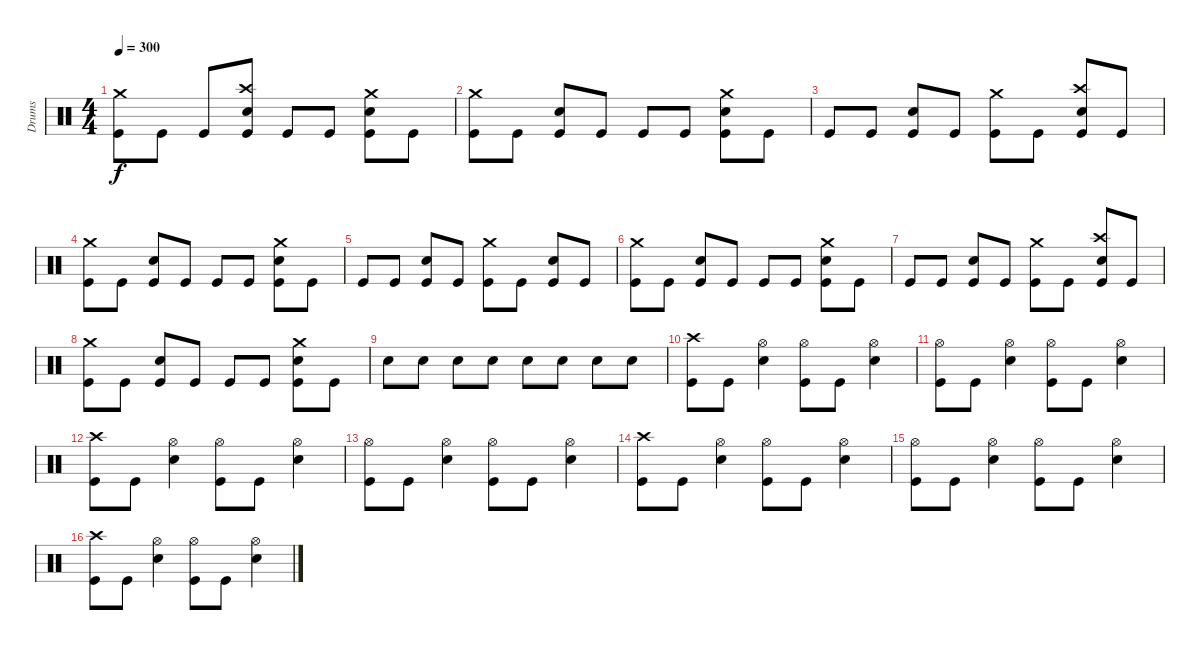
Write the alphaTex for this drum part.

\track ("Drums" "Drums") {instrument percussion}
\staff {score}
\articulation defaults
\ts (4 4)
\tempo 300
\clef neutral
\ks c
("Crash medium (hit)" "Kick (hit)").8{dy f} "Kick (hit)".8 "Kick (hit)".8 ("Crash high (hit)" "Electric Snare (hit)" "Kick (hit)").8 "Kick (hit)".8 "Kick (hit)".8 ("Crash medium (hit)" "Electric Snare (hit)" "Kick (hit)").8 "Kick (hit)".8 |
("Crash medium (hit)" "Kick (hit)").8 "Kick (hit)".8 ("Electric Snare (hit)" "Kick (hit)").8 "Kick (hit)".8 "Kick (hit)".8 "Kick (hit)".8 ("Crash medium (hit)" "Electric Snare (hit)" "Kick (hit)").8 "Kick (hit)".8 |
"Kick (hit)".8 "Kick (hit)".8 ("Electric Snare (hit)" "Kick (hit)").8 "Kick (hit)".8 ("Crash medium (hit)" "Kick (hit)").8 "Kick (hit)".8 ("Crash high (hit)" "Electric Snare (hit)" "Kick (hit)").8 "Kick (hit)".8 |
("Crash medium (hit)" "Kick (hit)").8 "Kick (hit)".8 ("Electric Snare (hit)" "Kick (hit)").8 "Kick (hit)".8 "Kick (hit)".8 "Kick (hit)".8 ("Crash medium (hit)" "Electric Snare (hit)" "Kick (hit)").8 "Kick (hit)".8 |
"Kick (hit)".8 "Kick (hit)".8 ("Electric Snare (hit)" "Kick (hit)").8 "Kick (hit)".8 ("Crash medium (hit)" "Kick (hit)").8 "Kick (hit)".8 ("Electric Snare (hit)" "Kick (hit)").8 "Kick (hit)".8 |
("Crash medium (hit)" "Kick (hit)").8 "Kick (hit)".8 ("Electric Snare (hit)" "Kick (hit)").8 "Kick (hit)".8 "Kick (hit)".8 "Kick (hit)".8 ("Crash medium (hit)" "Electric Snare (hit)" "Kick (hit)").8 "Kick (hit)".8 |
"Kick (hit)".8 "Kick (hit)".8 ("Electric Snare (hit)" "Kick (hit)").8 "Kick (hit)".8 ("Crash medium (hit)" "Kick (hit)").8 "Kick (hit)".8 ("Crash high (hit)" "Electric Snare (hit)" "Kick (hit)").8 "Kick (hit)".8 |
("Crash medium (hit)" "Kick (hit)").8 "Kick (hit)".8 ("Electric Snare (hit)" "Kick (hit)").8 "Kick (hit)".8 "Kick (hit)".8 "Kick (hit)".8 ("Crash medium (hit)" "Electric Snare (hit)" "Kick (hit)").8 "Kick (hit)".8 |
"Electric Snare (hit)".8 "Electric Snare (hit)".8 "Electric Snare (hit)".8 "Electric Snare (hit)".8 "Electric Snare (hit)".8 "Electric Snare (hit)".8 "Electric Snare (hit)".8 "Electric Snare (hit)".8 |
("Crash high (hit)" "Kick (hit)").8 "Kick (hit)".8 ("Hi-Hat (open)" "Electric Snare (hit)").4 ("Hi-Hat (open)" "Kick (hit)").8 "Kick (hit)".8 ("Hi-Hat (open)" "Electric Snare (hit)").4 |
("Hi-Hat (open)" "Kick (hit)").8 "Kick (hit)".8 ("Hi-Hat (open)" "Electric Snare (hit)").4 ("Hi-Hat (open)" "Kick (hit)").8 "Kick (hit)".8 ("Hi-Hat (open)" "Electric Snare (hit)").4 |
("Crash high (hit)" "Kick (hit)").8 "Kick (hit)".8 ("Hi-Hat (open)" "Electric Snare (hit)").4 ("Hi-Hat (open)" "Kick (hit)").8 "Kick (hit)".8 ("Hi-Hat (open)" "Electric Snare (hit)").4 |
("Hi-Hat (open)" "Kick (hit)").8 "Kick (hit)".8 ("Hi-Hat (open)" "Electric Snare (hit)").4 ("Hi-Hat (open)" "Kick (hit)").8 "Kick (hit)".8 ("Hi-Hat (open)" "Electric Snare (hit)").4 |
("Crash high (hit)" "Kick (hit)").8 "Kick (hit)".8 ("Hi-Hat (open)" "Electric Snare (hit)").4 ("Hi-Hat (open)" "Kick (hit)").8 "Kick (hit)".8 ("Hi-Hat (open)" "Electric Snare (hit)").4 |
("Hi-Hat (open)" "Kick (hit)").8 "Kick (hit)".8 ("Hi-Hat (open)" "Electric Snare (hit)").4 ("Hi-Hat (open)" "Kick (hit)").8 "Kick (hit)".8 ("Hi-Hat (open)" "Electric Snare (hit)").4 |
("Crash high (hit)" "Kick (hit)").8 "Kick (hit)".8 ("Hi-Hat (open)" "Electric Snare (hit)").4 ("Hi-Hat (open)" "Kick (hit)").8 "Kick (hit)".8 ("Hi-Hat (open)" "Electric Snare (hit)").4
